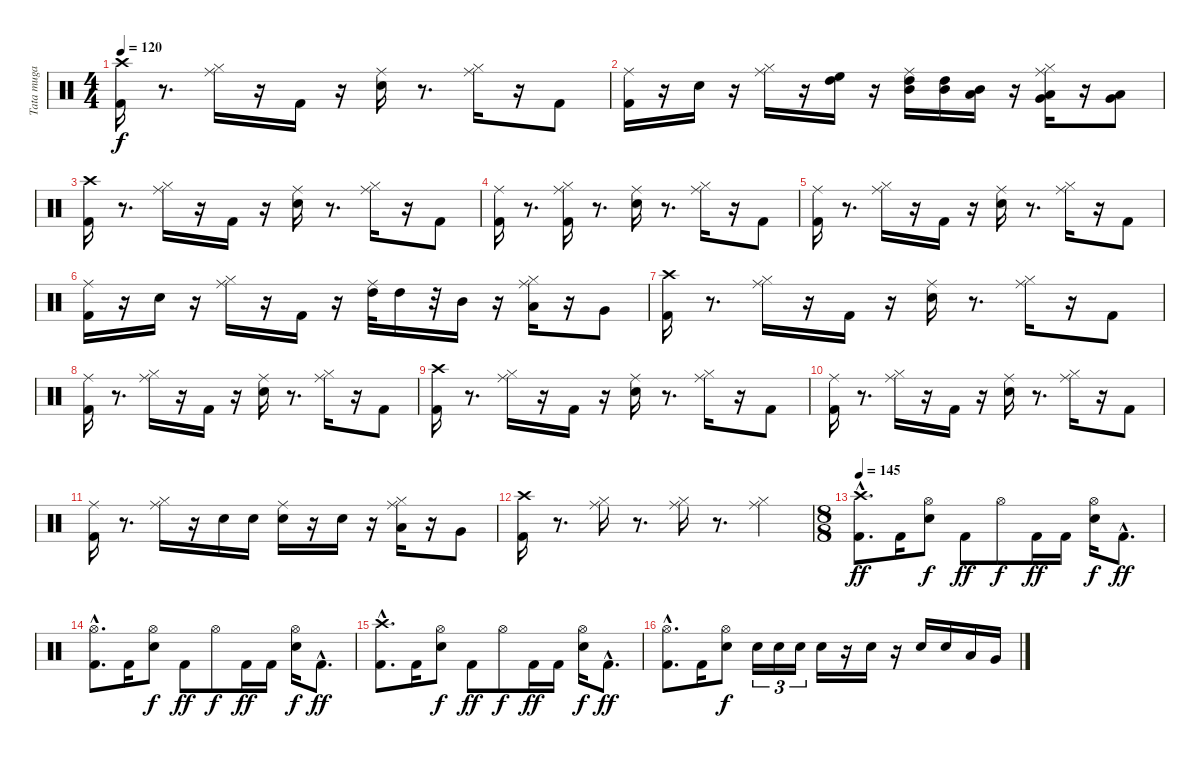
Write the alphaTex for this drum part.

\track ("Tata muga" "Tata muga") {instrument percussion}
\staff {score}
\articulation defaults
\ts (4 4)
\tempo 120
\clef neutral
\ks c
("Crash high (hit)" "Kick (hit) 2").16{dy f} r.8{d} ("Ride (middle)" "Hi-Hat (closed)").16 r.16 "Kick (hit) 2".16 r.16 ("Ride (middle)" "Electric Snare (hit)").16 r.8{d} ("Ride (middle)" "Hi-Hat (closed)").16 r.16 "Kick (hit) 2".8 |
("Ride (middle)" "Kick (hit) 2").16 r.16 "Electric Snare (hit)".16 r.16 ("Hi-Hat (closed)" "Ride (middle)").16 r.16 ("High Floor Tom (hit)" "High Tom (hit)").16 r.16 ("High Tom (hit)" "Ride (middle)" "Mid Tom (hit)").16 ("High Tom (hit)" "Mid Tom (hit)").16 ("Mid Tom (hit)" "Low Tom (hit)").16 r.16 ("Low Tom (hit)" "Hi-Hat (closed)" "Ride (middle)" "Very Low Tom (hit)").16 r.16 ("Very Low Tom (hit)" "Low Floor Tom (hit)").8 |
("Crash high (hit)" "Kick (hit) 2").16 r.8{d} ("Ride (middle)" "Hi-Hat (closed)").16 r.16 "Kick (hit) 2".16 r.16 ("Ride (middle)" "Electric Snare (hit)").16 r.8{d} ("Hi-Hat (closed)" "Ride (middle)").16 r.16 "Kick (hit) 2".8 |
("Kick (hit) 2" "Ride (middle)").16 r.8{d} ("Ride (middle)" "Hi-Hat (closed)" "Kick (hit) 2").16 r.8{d} ("Ride (middle)" "Electric Snare (hit)").16 r.8{d} ("Hi-Hat (closed)" "Ride (middle)").16 r.16 "Kick (hit) 2".8 |
("Ride (middle)" "Kick (hit) 2").16 r.8{d} ("Ride (middle)" "Hi-Hat (closed)").16 r.16 "Kick (hit) 2".16 r.16 ("Ride (middle)" "Electric Snare (hit)").16 r.8{d} ("Ride (middle)" "Hi-Hat (closed)").16 r.16 "Kick (hit) 2".8 |
("Ride (middle)" "Kick (hit) 2").16 r.16 "Electric Snare (hit)".16 r.16 ("Hi-Hat (closed)" "Ride (middle)").16 r.16 "Kick (hit) 2".16 r.16 ("Ride (middle)" "High Tom (hit)").32 "High Tom (hit)".16 r.32 "Mid Tom (hit)".16 r.16 ("Hi-Hat (closed)" "Ride (middle)" "Low Tom (hit)").16 r.16 "Very Low Tom (hit)".8 |
("Crash high (hit)" "Kick (hit) 2").16 r.8{d} ("Ride (middle)" "Hi-Hat (closed)").16 r.16 "Kick (hit) 2".16 r.16 ("Electric Snare (hit)" "Ride (middle)").16 r.8{d} ("Hi-Hat (closed)" "Ride (middle)").16 r.16 "Kick (hit) 2".8 |
("Kick (hit) 2" "Ride (middle)").16 r.8{d} ("Hi-Hat (closed)" "Ride (middle)").16 r.16 "Kick (hit) 2".16 r.16 ("Ride (middle)" "Electric Snare (hit)").16 r.8{d} ("Hi-Hat (closed)" "Ride (middle)").16 r.16 "Kick (hit) 2".8 |
("Crash high (hit)" "Kick (hit) 2").16 r.8{d} ("Hi-Hat (closed)" "Ride (middle)").16 r.16 "Kick (hit) 2".16 r.16 ("Ride (middle)" "Electric Snare (hit)").16 r.8{d} ("Ride (middle)" "Hi-Hat (closed)").16 r.16 "Kick (hit) 2".8 |
("Ride (middle)" "Kick (hit) 2").16 r.8{d} ("Hi-Hat (closed)" "Ride (middle)").16 r.16 "Kick (hit) 2".16 r.16 ("Ride (middle)" "Electric Snare (hit)").16 r.8{d} ("Hi-Hat (closed)" "Ride (middle)").16 r.16 "Kick (hit) 2".8 |
("Ride (middle)" "Kick (hit) 2").16 r.8{d} ("Ride (middle)" "Hi-Hat (closed)").16 r.16 "Electric Snare (hit)".16 "Electric Snare (hit)".16 ("Ride (middle)" "Electric Snare (hit)").16 r.16 "Electric Snare (hit)".16 r.16 ("Hi-Hat (closed)" "Ride (middle)" "Low Tom (hit)").16 r.16 "Very Low Tom (hit)".8 |
("Crash high (hit)" "Kick (hit) 2").16 r.8{d} ("Hi-Hat (closed)" "Ride (middle)").16 r.8{d} ("Hi-Hat (closed)" "Ride (middle)").16 r.8{d} ("Hi-Hat (closed)" "Ride (middle)").4 |
\ts (8 8)
\tempo 145
("Crash high (hit)"{hac} "Kick (hit) 2"{hac}).8{d dy ff} "Kick (hit) 2".16 ("Hi-Hat (open)" "Electric Snare (hit)").8{dy f} "Kick (hit) 2".8{dy ff} "Hi-Hat (open)".8{dy f} "Kick (hit) 2".16{dy ff} "Kick (hit) 2".16 ("Hi-Hat (open)" "Electric Snare (hit)").16{dy f} "Kick (hit) 2"{hac}.8{d dy ff} |
("Hi-Hat (open)"{hac} "Kick (hit) 2"{hac}).8{d} "Kick (hit) 2".16 ("Hi-Hat (open)" "Electric Snare (hit)").8{dy f} "Kick (hit) 2".8{dy ff} "Hi-Hat (open)".8{dy f} "Kick (hit) 2".16{dy ff} "Kick (hit) 2".16 ("Hi-Hat (open)" "Electric Snare (hit)").16{dy f} "Kick (hit) 2"{hac}.8{d dy ff} |
("Crash high (hit)"{hac} "Kick (hit) 2"{hac}).8{d} "Kick (hit) 2".16 ("Hi-Hat (open)" "Electric Snare (hit)").8{dy f} "Kick (hit) 2".8{dy ff} "Hi-Hat (open)".8{dy f} "Kick (hit) 2".16{dy ff} "Kick (hit) 2".16 ("Hi-Hat (open)" "Electric Snare (hit)").16{dy f} "Kick (hit) 2"{hac}.8{d dy ff} |
("Hi-Hat (open)"{hac} "Kick (hit) 2"{hac}).8{d} "Kick (hit) 2".16 ("Hi-Hat (open)" "Electric Snare (hit)").8{dy f} "Electric Snare (hit)".16{tu (3 2)} "Electric Snare (hit)".16{tu (3 2)} "Electric Snare (hit)".16{tu (3 2)} "Electric Snare (hit)".16 r.16 "Electric Snare (hit)".16 r.16 "Electric Snare (hit)".16 "Electric Snare (hit)".16 "Low Tom (hit)".16 "Very Low Tom (hit)".16
